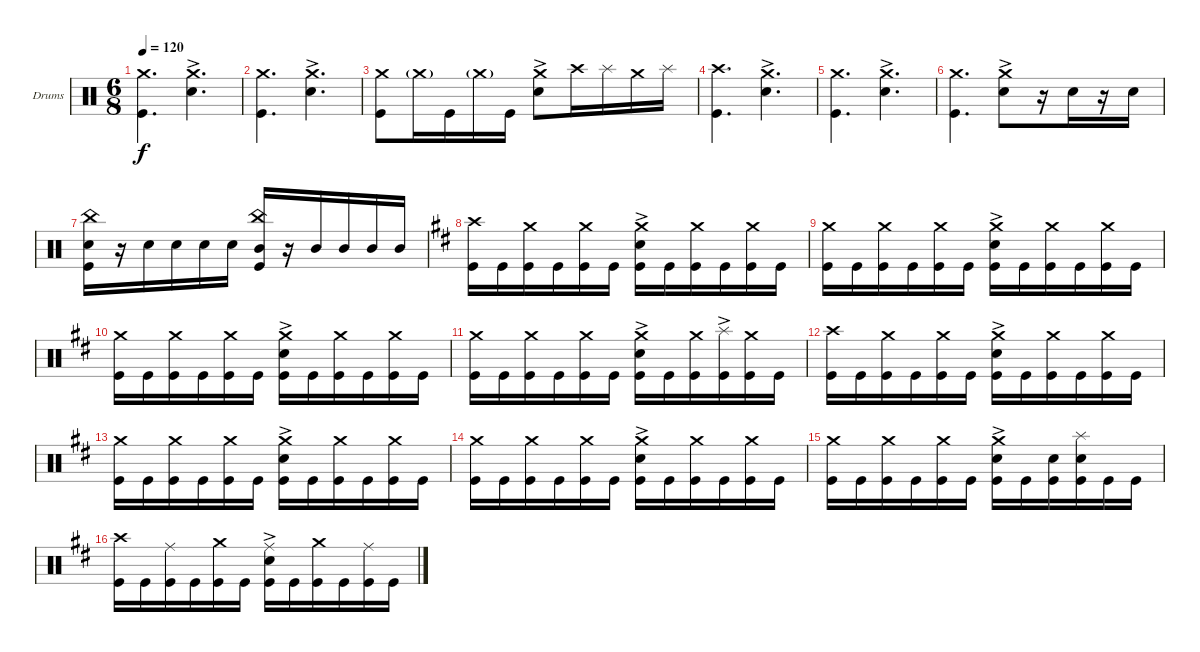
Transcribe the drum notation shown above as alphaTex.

\bracketExtendMode groupsimilarinstruments
\firstSystemTrackNameOrientation horizontal
\otherSystemsTrackNameOrientation horizontal
\track ("Drumkit" "Drums") {instrument percussion}
\staff {score}
\articulation defaults
\ts (6 8)
\tempo 120
\clef neutral
\ks c
("Crash medium (hit)" "Kick (hit)").4{d dy f} ("Crash medium (hit)" "Snare (hit) 2"{ac}).4{d} |
("Crash medium (hit)" "Kick (hit)").4{d} ("Crash medium (hit)" "Snare (hit) 2"{ac}).4{d} |
("Kick (hit)" "Crash medium (hit)").8 "Crash medium (hit)"{g}.16 "Kick (hit)".16 "Crash medium (hit)"{g}.16 "Kick (hit)".16 ("Snare (hit) 2"{ac} "Crash medium (hit)").8 "Crash high (hit)".16 "Splash (hit)".16 "Crash medium (hit)".16 "Splash (hit)".16 |
("Kick (hit)" "Crash high (hit)").4{d} ("Snare (hit) 2"{ac} "Crash medium (hit)").4{d} |
("Crash medium (hit)" "Kick (hit)").4{d} ("Crash medium (hit)" "Snare (hit) 2"{ac}).4{d} |
("Crash medium (hit)" "Kick (hit)").4{d} ("Crash medium (hit)" "Snare (hit) 2"{ac}).8 r.16 "Snare (hit) 2".16 r.16 "Snare (hit) 2".16 |
("Snare (hit) 2" "Kick (hit)" "China (hit)").16 r.16 "Snare (hit) 2".16 "Snare (hit) 2".16 "Snare (hit) 2".16 "Snare (hit) 2".16 ("Kick (hit)" "China (hit)" "Mid Tom (hit)").16 r.16 "Mid Tom (hit)".16 "Mid Tom (hit)".16 "Mid Tom (hit)".16 "Mid Tom (hit)".16 |
\ks d
("Kick (hit)" "Crash high (hit)").16 "Kick (hit)".16 ("Kick (hit)" "Crash medium (hit)").16 "Kick (hit)".16 ("Kick (hit)" "Crash medium (hit)").16 "Kick (hit)".16 ("Kick (hit)" "Crash medium (hit)" "Snare (hit) 2"{ac}).16 "Kick (hit)".16 ("Kick (hit)" "Crash medium (hit)").16 "Kick (hit)".16 ("Kick (hit)" "Crash medium (hit)").16 "Kick (hit)".16 |
("Kick (hit)" "Crash medium (hit)").16 "Kick (hit)".16 ("Kick (hit)" "Crash medium (hit)").16 "Kick (hit)".16 ("Kick (hit)" "Crash medium (hit)").16 "Kick (hit)".16 ("Kick (hit)" "Crash medium (hit)" "Snare (hit) 2"{ac}).16 "Kick (hit)".16 ("Kick (hit)" "Crash medium (hit)").16 "Kick (hit)".16 ("Kick (hit)" "Crash medium (hit)").16 "Kick (hit)".16 |
("Kick (hit)" "Crash medium (hit)").16 "Kick (hit)".16 ("Kick (hit)" "Crash medium (hit)").16 "Kick (hit)".16 ("Kick (hit)" "Crash medium (hit)").16 "Kick (hit)".16 ("Kick (hit)" "Crash medium (hit)" "Snare (hit) 2"{ac}).16 "Kick (hit)".16 ("Kick (hit)" "Crash medium (hit)").16 "Kick (hit)".16 ("Kick (hit)" "Crash medium (hit)").16 "Kick (hit)".16 |
("Kick (hit)" "Crash medium (hit)").16 "Kick (hit)".16 ("Kick (hit)" "Crash medium (hit)").16 "Kick (hit)".16 ("Kick (hit)" "Crash medium (hit)").16 "Kick (hit)".16 ("Kick (hit)" "Crash medium (hit)" "Snare (hit) 2"{ac}).16 "Kick (hit)".16 ("Kick (hit)" "Crash medium (hit)").16 ("Kick (hit)" "Splash (hit)"{ac}).16 ("Kick (hit)" "Crash medium (hit)").16 "Kick (hit)".16 |
("Kick (hit)" "Crash high (hit)").16 "Kick (hit)".16 ("Kick (hit)" "Crash medium (hit)").16 "Kick (hit)".16 ("Kick (hit)" "Crash medium (hit)").16 "Kick (hit)".16 ("Kick (hit)" "Crash medium (hit)" "Snare (hit) 2"{ac}).16 "Kick (hit)".16 ("Kick (hit)" "Crash medium (hit)").16 "Kick (hit)".16 ("Kick (hit)" "Crash medium (hit)").16 "Kick (hit)".16 |
("Kick (hit)" "Crash medium (hit)").16 "Kick (hit)".16 ("Kick (hit)" "Crash medium (hit)").16 "Kick (hit)".16 ("Kick (hit)" "Crash medium (hit)").16 "Kick (hit)".16 ("Kick (hit)" "Crash medium (hit)" "Snare (hit) 2"{ac}).16 "Kick (hit)".16 ("Kick (hit)" "Crash medium (hit)").16 "Kick (hit)".16 ("Kick (hit)" "Crash medium (hit)").16 "Kick (hit)".16 |
("Kick (hit)" "Crash medium (hit)").16 "Kick (hit)".16 ("Kick (hit)" "Crash medium (hit)").16 "Kick (hit)".16 ("Kick (hit)" "Crash medium (hit)").16 "Kick (hit)".16 ("Kick (hit)" "Crash medium (hit)" "Snare (hit) 2"{ac}).16 "Kick (hit)".16 ("Kick (hit)" "Crash medium (hit)").16 "Kick (hit)".16 ("Kick (hit)" "Crash medium (hit)").16 "Kick (hit)".16 |
("Kick (hit)" "Crash medium (hit)").16 "Kick (hit)".16 ("Kick (hit)" "Crash medium (hit)").16 "Kick (hit)".16 ("Kick (hit)" "Crash medium (hit)").16 "Kick (hit)".16 ("Kick (hit)" "Crash medium (hit)" "Snare (hit) 2"{ac}).16 "Kick (hit)".16 ("Kick (hit)" "Snare (hit) 2").16 ("Kick (hit)" "Snare (hit) 2" "Splash (hit)").16 "Kick (hit)".16 "Kick (hit)".16 |
("Kick (hit)" "Crash high (hit)").16 "Kick (hit)".16 ("Kick (hit)" "Ride (middle)").16 "Kick (hit)".16 ("Kick (hit)" "Crash medium (hit)").16 "Kick (hit)".16 ("Kick (hit)" "Snare (hit) 2"{ac} "Ride (middle)").16 "Kick (hit)".16 ("Kick (hit)" "Crash medium (hit)").16 "Kick (hit)".16 ("Kick (hit)" "Ride (middle)").16 "Kick (hit)".16
